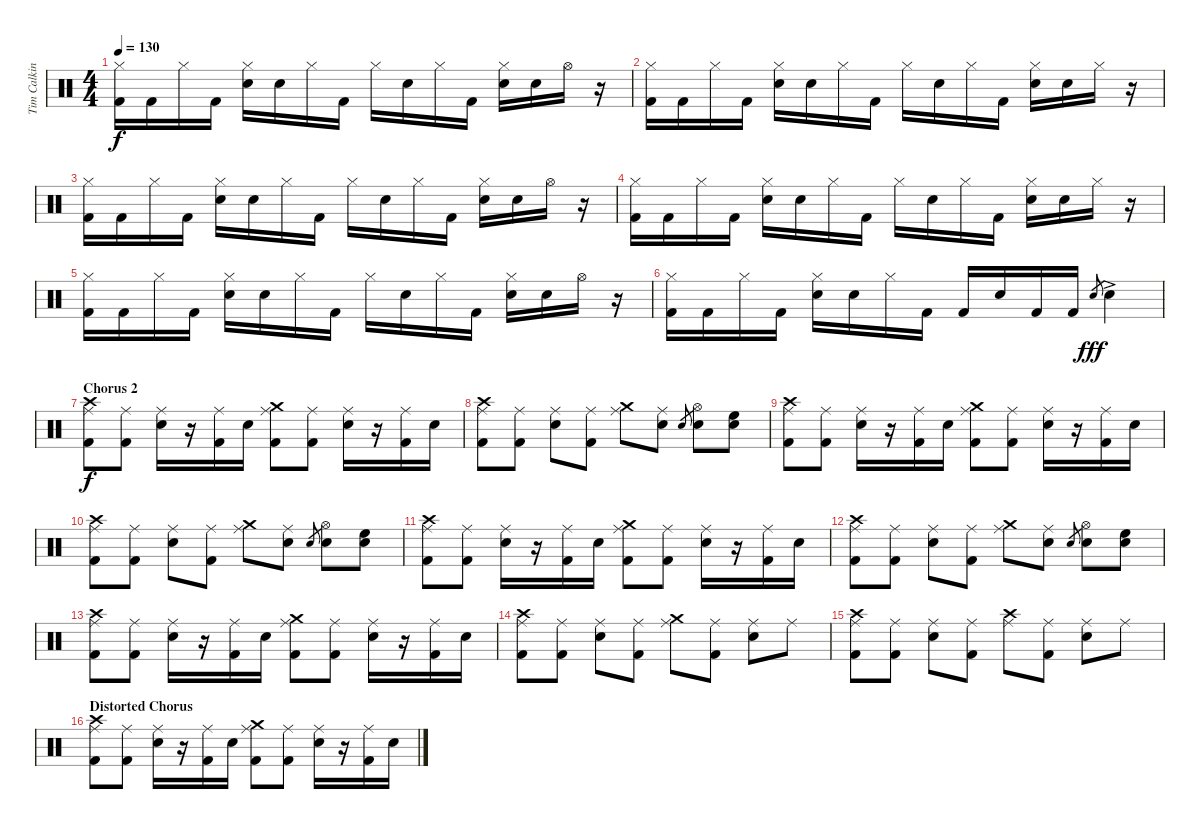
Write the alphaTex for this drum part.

\track ("Tim Calkin" "Tim Calkin") {instrument percussion}
\staff {score}
\articulation defaults
\ts (4 4)
\tempo 130
\clef neutral
\ks c
("Hi-Hat (closed)" "Kick (hit) 2").16{dy f} "Kick (hit) 2".16 "Hi-Hat (closed)".16 "Kick (hit) 2".16 ("Hi-Hat (closed)" "Snare (hit) 2").16 "Snare (hit) 2".16 "Hi-Hat (closed)".16 "Kick (hit) 2".16 "Hi-Hat (closed)".16 "Snare (hit) 2".16 "Hi-Hat (closed)".16 "Kick (hit) 2".16 ("Hi-Hat (closed)" "Snare (hit) 2").16 "Snare (hit) 2".16 "Hi-Hat (open)".16 r.16 |
("Hi-Hat (closed)" "Kick (hit) 2").16 "Kick (hit) 2".16 "Hi-Hat (closed)".16 "Kick (hit) 2".16 ("Hi-Hat (closed)" "Snare (hit) 2").16 "Snare (hit) 2".16 "Hi-Hat (closed)".16 "Kick (hit) 2".16 "Hi-Hat (closed)".16 "Snare (hit) 2".16 "Hi-Hat (closed)".16 "Kick (hit) 2".16 ("Hi-Hat (closed)" "Snare (hit) 2").16 "Snare (hit) 2".16 "Hi-Hat (closed)".16 r.16 |
("Hi-Hat (closed)" "Kick (hit) 2").16 "Kick (hit) 2".16 "Hi-Hat (closed)".16 "Kick (hit) 2".16 ("Hi-Hat (closed)" "Snare (hit) 2").16 "Snare (hit) 2".16 "Hi-Hat (closed)".16 "Kick (hit) 2".16 "Hi-Hat (closed)".16 "Snare (hit) 2".16 "Hi-Hat (closed)".16 "Kick (hit) 2".16 ("Hi-Hat (closed)" "Snare (hit) 2").16 "Snare (hit) 2".16 "Hi-Hat (open)".16 r.16 |
("Hi-Hat (closed)" "Kick (hit) 2").16 "Kick (hit) 2".16 "Hi-Hat (closed)".16 "Kick (hit) 2".16 ("Hi-Hat (closed)" "Snare (hit) 2").16 "Snare (hit) 2".16 "Hi-Hat (closed)".16 "Kick (hit) 2".16 "Hi-Hat (closed)".16 "Snare (hit) 2".16 "Hi-Hat (closed)".16 "Kick (hit) 2".16 ("Hi-Hat (closed)" "Snare (hit) 2").16 "Snare (hit) 2".16 "Hi-Hat (closed)".16 r.16 |
("Hi-Hat (closed)" "Kick (hit) 2").16 "Kick (hit) 2".16 "Hi-Hat (closed)".16 "Kick (hit) 2".16 ("Hi-Hat (closed)" "Snare (hit) 2").16 "Snare (hit) 2".16 "Hi-Hat (closed)".16 "Kick (hit) 2".16 "Hi-Hat (closed)".16 "Snare (hit) 2".16 "Hi-Hat (closed)".16 "Kick (hit) 2".16 ("Hi-Hat (closed)" "Snare (hit) 2").16 "Snare (hit) 2".16 "Hi-Hat (open)".16 r.16 |
("Hi-Hat (closed)" "Kick (hit) 2").16 "Kick (hit) 2".16 "Hi-Hat (closed)".16 "Kick (hit) 2".16 ("Hi-Hat (closed)" "Snare (hit) 2").16 "Snare (hit) 2".16 "Hi-Hat (closed)".16 "Kick (hit) 2".16 "Kick (hit) 2".16 "Snare (hit) 2".16 "Kick (hit) 2".16 "Kick (hit) 2".16 "Snare (hit) 2".8{gr dy fff} "Snare (hit) 2"{ac}.4 |
\section ("" "Chorus 2")
("Ride (middle)" "Crash high (hit)" "Kick (hit) 2").8{dy f} ("Ride (middle)" "Kick (hit) 2").8 ("Ride (middle)" "Snare (hit) 2").16 r.16 ("Ride (middle)" "Kick (hit) 2").16 "Snare (hit) 2".16 ("Ride (middle)" "Crash medium (hit)" "Kick (hit) 2").8 ("Ride (middle)" "Kick (hit) 2").8 ("Ride (middle)" "Snare (hit) 2").16 r.16 ("Ride (middle)" "Kick (hit) 2").16 "Snare (hit) 2".16 |
("Ride (middle)" "Crash high (hit)" "Kick (hit) 2").8 ("Ride (middle)" "Kick (hit) 2").8 ("Ride (middle)" "Snare (hit) 2").8 ("Ride (middle)" "Kick (hit) 2").8 ("Ride (middle)" "Crash medium (hit)").8 ("Ride (middle)" "Snare (hit) 2").8 "Snare (hit) 2".8{gr} ("Hi-Hat (open)" "Snare (hit) 2").8 ("High Floor Tom (hit)" "Snare (hit) 2").8 |
("Ride (middle)" "Crash high (hit)" "Kick (hit) 2").8 ("Ride (middle)" "Kick (hit) 2").8 ("Ride (middle)" "Snare (hit) 2").16 r.16 ("Ride (middle)" "Kick (hit) 2").16 "Snare (hit) 2".16 ("Ride (middle)" "Crash medium (hit)" "Kick (hit) 2").8 ("Ride (middle)" "Kick (hit) 2").8 ("Ride (middle)" "Snare (hit) 2").16 r.16 ("Ride (middle)" "Kick (hit) 2").16 "Snare (hit) 2".16 |
("Ride (middle)" "Crash high (hit)" "Kick (hit) 2").8 ("Ride (middle)" "Kick (hit) 2").8 ("Ride (middle)" "Snare (hit) 2").8 ("Ride (middle)" "Kick (hit) 2").8 ("Ride (middle)" "Crash medium (hit)").8 ("Ride (middle)" "Snare (hit) 2").8 "Snare (hit) 2".8{gr} ("Hi-Hat (open)" "Snare (hit) 2").8 ("High Floor Tom (hit)" "Snare (hit) 2").8 |
("Ride (middle)" "Crash high (hit)" "Kick (hit) 2").8 ("Ride (middle)" "Kick (hit) 2").8 ("Ride (middle)" "Snare (hit) 2").16 r.16 ("Ride (middle)" "Kick (hit) 2").16 "Snare (hit) 2".16 ("Ride (middle)" "Crash medium (hit)" "Kick (hit) 2").8 ("Ride (middle)" "Kick (hit) 2").8 ("Ride (middle)" "Snare (hit) 2").16 r.16 ("Ride (middle)" "Kick (hit) 2").16 "Snare (hit) 2".16 |
("Ride (middle)" "Crash high (hit)" "Kick (hit) 2").8 ("Ride (middle)" "Kick (hit) 2").8 ("Ride (middle)" "Snare (hit) 2").8 ("Ride (middle)" "Kick (hit) 2").8 ("Ride (middle)" "Crash medium (hit)").8 ("Ride (middle)" "Snare (hit) 2").8 "Snare (hit) 2".8{gr} ("Hi-Hat (open)" "Snare (hit) 2").8 ("High Floor Tom (hit)" "Snare (hit) 2").8 |
("Ride (middle)" "Crash high (hit)" "Kick (hit) 2").8 ("Ride (middle)" "Kick (hit) 2").8 ("Ride (middle)" "Snare (hit) 2").16 r.16 ("Ride (middle)" "Kick (hit) 2").16 "Snare (hit) 2".16 ("Ride (middle)" "Crash medium (hit)" "Kick (hit) 2").8 ("Ride (middle)" "Kick (hit) 2").8 ("Ride (middle)" "Snare (hit) 2").16 r.16 ("Ride (middle)" "Kick (hit) 2").16 "Snare (hit) 2".16 |
("Ride (middle)" "Crash high (hit)" "Kick (hit) 2").8 ("Ride (middle)" "Kick (hit) 2").8 ("Ride (middle)" "Snare (hit) 2").8 ("Ride (middle)" "Kick (hit) 2").8 ("Ride (middle)" "Crash medium (hit)").8 ("Ride (middle)" "Kick (hit) 2").8 ("Ride (middle)" "Snare (hit) 2").8 "Ride (middle)".8 |
("Ride (middle)" "Crash high (hit)" "Kick (hit) 2").8 ("Ride (middle)" "Kick (hit) 2").8 ("Ride (middle)" "Snare (hit) 2").8 ("Ride (middle)" "Kick (hit) 2").8 ("Ride (middle)" "Crash high (hit)").8 ("Ride (middle)" "Kick (hit) 2").8 ("Ride (middle)" "Snare (hit) 2").8 "Ride (middle)".8 |
\section ("" "Distorted Chorus")
("Ride (middle)" "Crash high (hit)" "Kick (hit) 2").8 ("Ride (middle)" "Kick (hit) 2").8 ("Ride (middle)" "Snare (hit) 2").16 r.16 ("Ride (middle)" "Kick (hit) 2").16 "Snare (hit) 2".16 ("Ride (middle)" "Crash medium (hit)" "Kick (hit) 2").8 ("Ride (middle)" "Kick (hit) 2").8 ("Ride (middle)" "Snare (hit) 2").16 r.16 ("Ride (middle)" "Kick (hit) 2").16 "Snare (hit) 2".16
